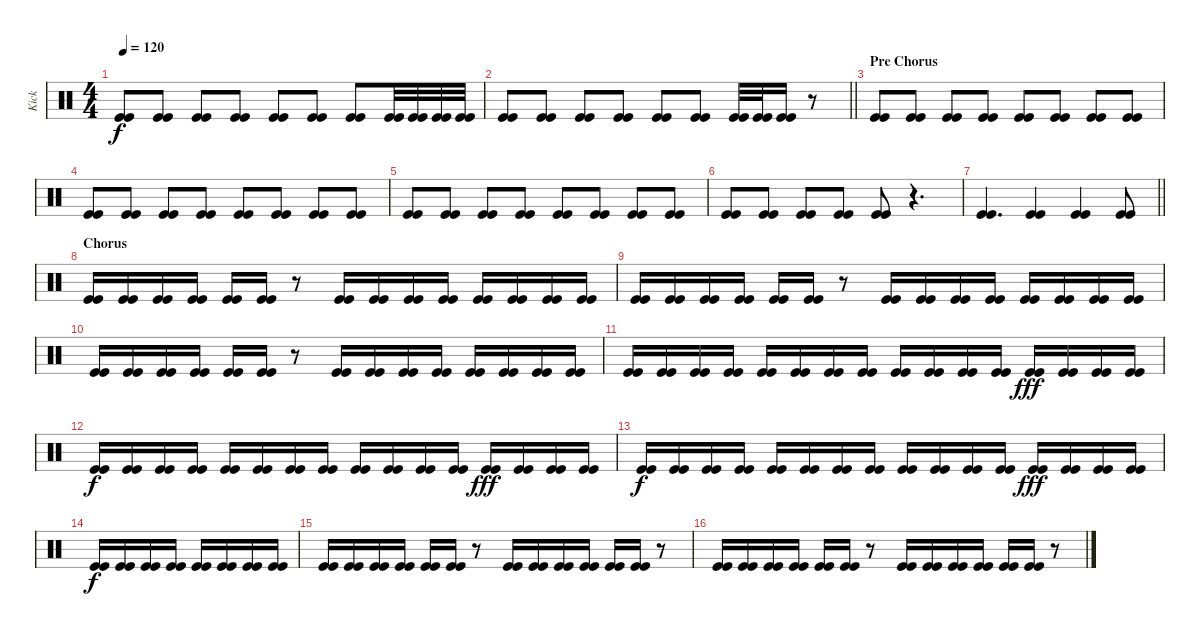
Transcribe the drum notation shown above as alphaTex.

\track ("Kick" "Kick") {instrument percussion}
\staff {score}
\articulation defaults
\ts (4 4)
\tempo 120
\clef neutral
\ks c
("Kick (hit)" "Kick (hit)").8{dy f} ("Kick (hit)" "Kick (hit)").8 ("Kick (hit)" "Kick (hit)").8 ("Kick (hit)" "Kick (hit)").8 ("Kick (hit)" "Kick (hit)").8 ("Kick (hit)" "Kick (hit)").8 ("Kick (hit)" "Kick (hit)").8 ("Kick (hit)" "Kick (hit)").32 ("Kick (hit)" "Kick (hit)").32 ("Kick (hit)" "Kick (hit)").32 ("Kick (hit)" "Kick (hit)").32 |
\barLineRight lightlight
("Kick (hit)" "Kick (hit)").8 ("Kick (hit)" "Kick (hit)").8 ("Kick (hit)" "Kick (hit)").8 ("Kick (hit)" "Kick (hit)").8 ("Kick (hit)" "Kick (hit)").8 ("Kick (hit)" "Kick (hit)").8 ("Kick (hit)" "Kick (hit)").32 ("Kick (hit)" "Kick (hit)").32 ("Kick (hit)" "Kick (hit)").16 r.8 |
\section ("" "Pre Chorus")
("Kick (hit)" "Kick (hit)").8 ("Kick (hit)" "Kick (hit)").8 ("Kick (hit)" "Kick (hit)").8 ("Kick (hit)" "Kick (hit)").8 ("Kick (hit)" "Kick (hit)").8 ("Kick (hit)" "Kick (hit)").8 ("Kick (hit)" "Kick (hit)").8 ("Kick (hit)" "Kick (hit)").8 |
("Kick (hit)" "Kick (hit)").8 ("Kick (hit)" "Kick (hit)").8 ("Kick (hit)" "Kick (hit)").8 ("Kick (hit)" "Kick (hit)").8 ("Kick (hit)" "Kick (hit)").8 ("Kick (hit)" "Kick (hit)").8 ("Kick (hit)" "Kick (hit)").8 ("Kick (hit)" "Kick (hit)").8 |
("Kick (hit)" "Kick (hit)").8 ("Kick (hit)" "Kick (hit)").8 ("Kick (hit)" "Kick (hit)").8 ("Kick (hit)" "Kick (hit)").8 ("Kick (hit)" "Kick (hit)").8 ("Kick (hit)" "Kick (hit)").8 ("Kick (hit)" "Kick (hit)").8 ("Kick (hit)" "Kick (hit)").8 |
("Kick (hit)" "Kick (hit)").8 ("Kick (hit)" "Kick (hit)").8 ("Kick (hit)" "Kick (hit)").8 ("Kick (hit)" "Kick (hit)").8 ("Kick (hit)" "Kick (hit)").8 r.4{d} |
\barLineRight lightlight
("Kick (hit)" "Kick (hit)").4{d} ("Kick (hit)" "Kick (hit)").4 ("Kick (hit)" "Kick (hit)").4 ("Kick (hit)" "Kick (hit)").8 |
\section ("" "Chorus")
("Kick (hit)" "Kick (hit)").16 ("Kick (hit)" "Kick (hit)").16 ("Kick (hit)" "Kick (hit)").16 ("Kick (hit)" "Kick (hit)").16 ("Kick (hit)" "Kick (hit)").16 ("Kick (hit)" "Kick (hit)").16 r.8 ("Kick (hit)" "Kick (hit)").16 ("Kick (hit)" "Kick (hit)").16 ("Kick (hit)" "Kick (hit)").16 ("Kick (hit)" "Kick (hit)").16 ("Kick (hit)" "Kick (hit)").16 ("Kick (hit)" "Kick (hit)").16 ("Kick (hit)" "Kick (hit)").16 ("Kick (hit)" "Kick (hit)").16 |
("Kick (hit)" "Kick (hit)").16 ("Kick (hit)" "Kick (hit)").16 ("Kick (hit)" "Kick (hit)").16 ("Kick (hit)" "Kick (hit)").16 ("Kick (hit)" "Kick (hit)").16 ("Kick (hit)" "Kick (hit)").16 r.8 ("Kick (hit)" "Kick (hit)").16 ("Kick (hit)" "Kick (hit)").16 ("Kick (hit)" "Kick (hit)").16 ("Kick (hit)" "Kick (hit)").16 ("Kick (hit)" "Kick (hit)").16 ("Kick (hit)" "Kick (hit)").16 ("Kick (hit)" "Kick (hit)").16 ("Kick (hit)" "Kick (hit)").16 |
("Kick (hit)" "Kick (hit)").16 ("Kick (hit)" "Kick (hit)").16 ("Kick (hit)" "Kick (hit)").16 ("Kick (hit)" "Kick (hit)").16 ("Kick (hit)" "Kick (hit)").16 ("Kick (hit)" "Kick (hit)").16 r.8 ("Kick (hit)" "Kick (hit)").16 ("Kick (hit)" "Kick (hit)").16 ("Kick (hit)" "Kick (hit)").16 ("Kick (hit)" "Kick (hit)").16 ("Kick (hit)" "Kick (hit)").16 ("Kick (hit)" "Kick (hit)").16 ("Kick (hit)" "Kick (hit)").16 ("Kick (hit)" "Kick (hit)").16 |
("Kick (hit)" "Kick (hit)").16 ("Kick (hit)" "Kick (hit)").16 ("Kick (hit)" "Kick (hit)").16 ("Kick (hit)" "Kick (hit)").16 ("Kick (hit)" "Kick (hit)").16 ("Kick (hit)" "Kick (hit)").16 ("Kick (hit)" "Kick (hit)").16 ("Kick (hit)" "Kick (hit)").16 ("Kick (hit)" "Kick (hit)").16 ("Kick (hit)" "Kick (hit)").16 ("Kick (hit)" "Kick (hit)").16 ("Kick (hit)" "Kick (hit)").16 ("Kick (hit)" "Kick (hit)").16{dy fff} ("Kick (hit)" "Kick (hit)").16 ("Kick (hit)" "Kick (hit)").16 ("Kick (hit)" "Kick (hit)").16 |
("Kick (hit)" "Kick (hit)").16{dy f} ("Kick (hit)" "Kick (hit)").16 ("Kick (hit)" "Kick (hit)").16 ("Kick (hit)" "Kick (hit)").16 ("Kick (hit)" "Kick (hit)").16 ("Kick (hit)" "Kick (hit)").16 ("Kick (hit)" "Kick (hit)").16 ("Kick (hit)" "Kick (hit)").16 ("Kick (hit)" "Kick (hit)").16 ("Kick (hit)" "Kick (hit)").16 ("Kick (hit)" "Kick (hit)").16 ("Kick (hit)" "Kick (hit)").16 ("Kick (hit)" "Kick (hit)").16{dy fff} ("Kick (hit)" "Kick (hit)").16 ("Kick (hit)" "Kick (hit)").16 ("Kick (hit)" "Kick (hit)").16 |
("Kick (hit)" "Kick (hit)").16{dy f} ("Kick (hit)" "Kick (hit)").16 ("Kick (hit)" "Kick (hit)").16 ("Kick (hit)" "Kick (hit)").16 ("Kick (hit)" "Kick (hit)").16 ("Kick (hit)" "Kick (hit)").16 ("Kick (hit)" "Kick (hit)").16 ("Kick (hit)" "Kick (hit)").16 ("Kick (hit)" "Kick (hit)").16 ("Kick (hit)" "Kick (hit)").16 ("Kick (hit)" "Kick (hit)").16 ("Kick (hit)" "Kick (hit)").16 ("Kick (hit)" "Kick (hit)").16{dy fff} ("Kick (hit)" "Kick (hit)").16 ("Kick (hit)" "Kick (hit)").16 ("Kick (hit)" "Kick (hit)").16 |
("Kick (hit)" "Kick (hit)").16{dy f} ("Kick (hit)" "Kick (hit)").16 ("Kick (hit)" "Kick (hit)").16 ("Kick (hit)" "Kick (hit)").16 ("Kick (hit)" "Kick (hit)").16 ("Kick (hit)" "Kick (hit)").16 ("Kick (hit)" "Kick (hit)").16 ("Kick (hit)" "Kick (hit)").16 |
("Kick (hit)" "Kick (hit)").16 ("Kick (hit)" "Kick (hit)").16 ("Kick (hit)" "Kick (hit)").16 ("Kick (hit)" "Kick (hit)").16 ("Kick (hit)" "Kick (hit)").16 ("Kick (hit)" "Kick (hit)").16 r.8 ("Kick (hit)" "Kick (hit)").16 ("Kick (hit)" "Kick (hit)").16 ("Kick (hit)" "Kick (hit)").16 ("Kick (hit)" "Kick (hit)").16 ("Kick (hit)" "Kick (hit)").16 ("Kick (hit)" "Kick (hit)").16 r.8 |
("Kick (hit)" "Kick (hit)").16 ("Kick (hit)" "Kick (hit)").16 ("Kick (hit)" "Kick (hit)").16 ("Kick (hit)" "Kick (hit)").16 ("Kick (hit)" "Kick (hit)").16 ("Kick (hit)" "Kick (hit)").16 r.8 ("Kick (hit)" "Kick (hit)").16 ("Kick (hit)" "Kick (hit)").16 ("Kick (hit)" "Kick (hit)").16 ("Kick (hit)" "Kick (hit)").16 ("Kick (hit)" "Kick (hit)").16 ("Kick (hit)" "Kick (hit)").16 r.8
